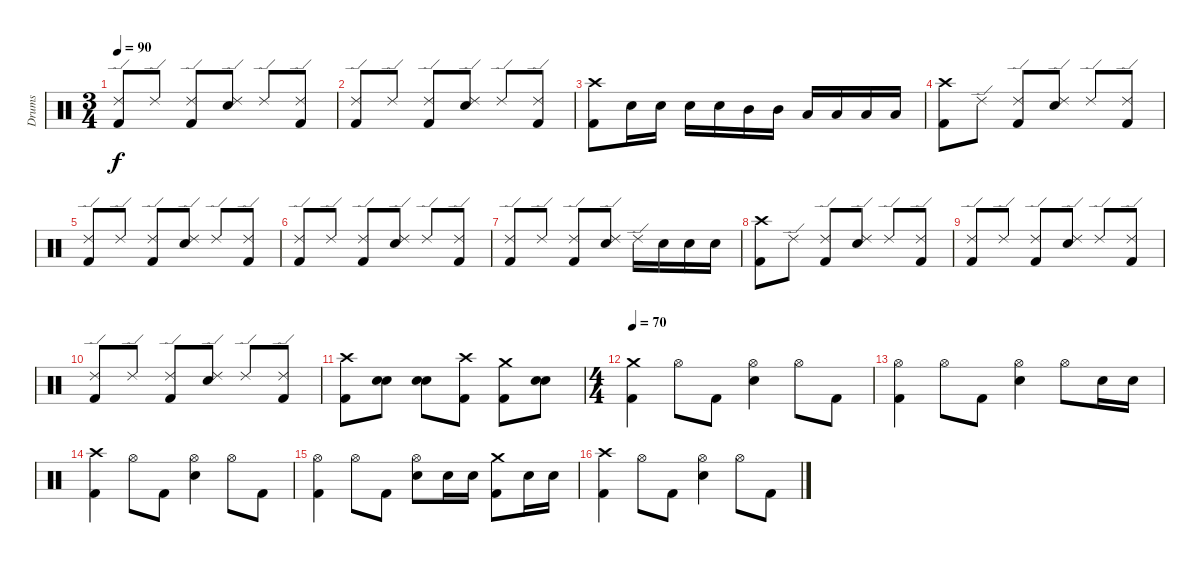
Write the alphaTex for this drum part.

\track ("Drums" "Drums") {instrument percussion}
\staff {score}
\articulation defaults
\ts (3 4)
\tempo 90
\clef neutral
\ks c
("Ride (edge) 2" "Kick (hit) 2").8{dy f} "Ride (edge) 2".8 ("Ride (edge) 2" "Kick (hit) 2").8 ("Ride (edge) 2" "Electric Snare (hit)").8 "Ride (edge) 2".8 ("Ride (edge) 2" "Kick (hit) 2").8 |
("Ride (edge) 2" "Kick (hit) 2").8 "Ride (edge) 2".8 ("Ride (edge) 2" "Kick (hit) 2").8 ("Ride (edge) 2" "Electric Snare (hit)").8 "Ride (edge) 2".8 ("Ride (edge) 2" "Kick (hit) 2").8 |
("Crash high (hit)" "Kick (hit) 2").8 "Electric Snare (hit)".16 "Electric Snare (hit)".16 "Electric Snare (hit)".16 "Electric Snare (hit)".16 "Mid Tom (hit)".16 "Mid Tom (hit)".16 "Low Tom (hit)".16 "Low Tom (hit)".16 "Low Tom (hit)".16 "Low Tom (hit)".16 |
("Crash high (hit)" "Kick (hit) 2").8 "Ride (edge) 2".8 ("Ride (edge) 2" "Kick (hit) 2").8 ("Ride (edge) 2" "Electric Snare (hit)").8 "Ride (edge) 2".8 ("Ride (edge) 2" "Kick (hit) 2").8 |
("Ride (edge) 2" "Kick (hit) 2").8 "Ride (edge) 2".8 ("Ride (edge) 2" "Kick (hit) 2").8 ("Ride (edge) 2" "Electric Snare (hit)").8 "Ride (edge) 2".8 ("Ride (edge) 2" "Kick (hit) 2").8 |
("Ride (edge) 2" "Kick (hit) 2").8 "Ride (edge) 2".8 ("Ride (edge) 2" "Kick (hit) 2").8 ("Ride (edge) 2" "Electric Snare (hit)").8 "Ride (edge) 2".8 ("Ride (edge) 2" "Kick (hit) 2").8 |
("Ride (edge) 2" "Kick (hit) 2").8 "Ride (edge) 2".8 ("Ride (edge) 2" "Kick (hit) 2").8 ("Ride (edge) 2" "Electric Snare (hit)").8 "Ride (edge) 2".16 "Electric Snare (hit)".16 "Electric Snare (hit)".16 "Electric Snare (hit)".16 |
("Crash high (hit)" "Kick (hit) 2").8 "Ride (edge) 2".8 ("Ride (edge) 2" "Kick (hit) 2").8 ("Ride (edge) 2" "Electric Snare (hit)").8 "Ride (edge) 2".8 ("Ride (edge) 2" "Kick (hit) 2").8 |
("Ride (edge) 2" "Kick (hit) 2").8 "Ride (edge) 2".8 ("Ride (edge) 2" "Kick (hit) 2").8 ("Ride (edge) 2" "Electric Snare (hit)").8 "Ride (edge) 2".8 ("Ride (edge) 2" "Kick (hit) 2").8 |
("Ride (edge) 2" "Kick (hit) 2").8 "Ride (edge) 2".8 ("Ride (edge) 2" "Kick (hit) 2").8 ("Ride (edge) 2" "Electric Snare (hit)").8 "Ride (edge) 2".8 ("Ride (edge) 2" "Kick (hit) 2").8 |
("Crash high (hit)" "Kick (hit) 2").8 ("Electric Snare (hit)" "Electric Snare (hit)").8{bu 60} ("Electric Snare (hit)" "Electric Snare (hit)").8{bu 60} ("Crash high (hit)" "Kick (hit) 2").8 ("Crash medium (hit)" "Kick (hit) 2").8 ("Electric Snare (hit)" "Electric Snare (hit)").8{bu 60} |
\ts (4 4)
\tempo 70
("Crash medium (hit)" "Kick (hit) 2").4 "Hi-Hat (open)".8 "Kick (hit) 2".8 ("Hi-Hat (open)" "Electric Snare (hit)").4 "Hi-Hat (open)".8 "Kick (hit) 2".8 |
("Hi-Hat (open)" "Kick (hit) 2").4 "Hi-Hat (open)".8 "Kick (hit) 2".8 ("Hi-Hat (open)" "Electric Snare (hit)").4 "Hi-Hat (open)".8 "Electric Snare (hit)".16 "Electric Snare (hit)".16 |
("Crash high (hit)" "Kick (hit) 2").4 "Hi-Hat (open)".8 "Kick (hit) 2".8 ("Hi-Hat (open)" "Electric Snare (hit)").4 "Hi-Hat (open)".8 "Kick (hit) 2".8 |
("Hi-Hat (open)" "Kick (hit) 2").4 "Hi-Hat (open)".8 "Kick (hit) 2".8 ("Hi-Hat (open)" "Electric Snare (hit)").8 "Electric Snare (hit)".16 "Electric Snare (hit)".16 ("Crash medium (hit)" "Kick (hit) 2").8 "Electric Snare (hit)".16 "Electric Snare (hit)".16 |
("Crash high (hit)" "Kick (hit) 2").4 "Hi-Hat (open)".8 "Kick (hit) 2".8 ("Hi-Hat (open)" "Electric Snare (hit)").4 "Hi-Hat (open)".8 "Kick (hit) 2".8
